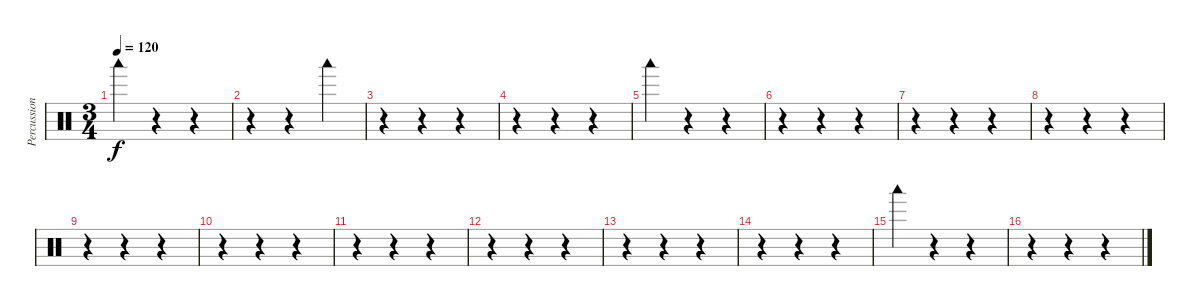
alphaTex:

\track ("Percussions" "Percussion") {instrument percussion}
\staff {score}
\articulation defaults
\ts (3 4)
\tempo 120
\clef neutral
\ks c "Woodblock low (hit)".4{dy f}
r.4 r.4 |
r.4 r.4 "Woodblock low (hit)".4 |
r.4 r.4 r.4 |
r.4 r.4 r.4 |
"Woodblock low (hit)".4 r.4 r.4 |
r.4 r.4 r.4 |
r.4 r.4 r.4 |
r.4 r.4 r.4 |
r.4 r.4 r.4 |
r.4 r.4 r.4 |
r.4 r.4 r.4 |
r.4 r.4 r.4 |
r.4 r.4 r.4 |
r.4 r.4 r.4 |
"Woodblock low (hit)".4 r.4 r.4 |
r.4 r.4 r.4
